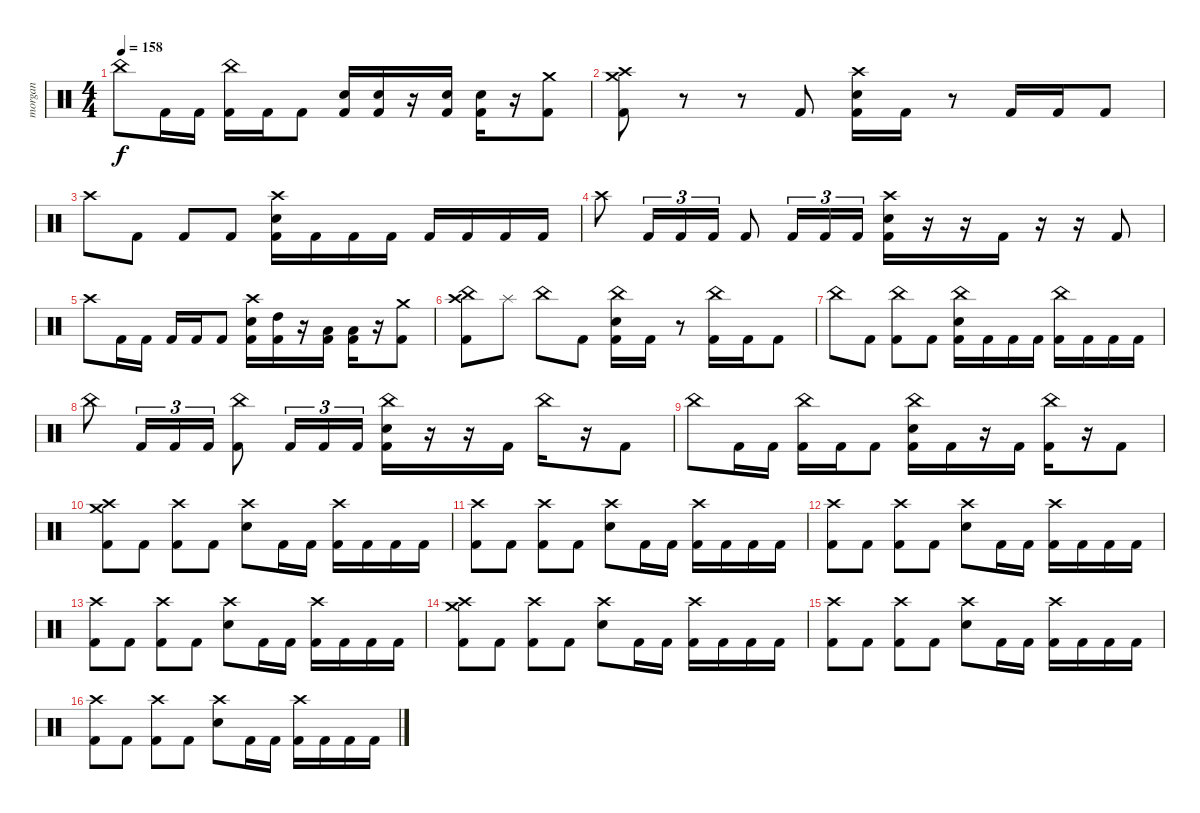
\track ("morgan" "morgan") {instrument percussion}
\staff {score}
\articulation defaults
\ts (4 4)
\tempo 158
\clef neutral
\ks c "China (hit)".8{dy f} "Kick (hit) 2".16 "Kick (hit) 2".16
("China (hit)" "Kick (hit) 2").16 "Kick (hit) 2".16 "Kick (hit) 2".8 ("Electric Snare (hit)" "Kick (hit) 2").16 ("Electric Snare (hit)" "Kick (hit) 2").16 r.16 ("Electric Snare (hit)" "Kick (hit) 2").16 ("Electric Snare (hit)" "Kick (hit) 2").16 r.16 ("Crash medium (hit)" "Kick (hit) 2").8 |
("Crash medium (hit)" "Crash high (hit)" "Kick (hit) 2").8 r.8 r.8 "Kick (hit) 2".8 ("Crash high (hit)" "Electric Snare (hit)" "Kick (hit) 2").16 "Kick (hit) 2".16 r.8 "Kick (hit) 2".16 "Kick (hit) 2".16 "Kick (hit) 2".8 |
"Crash high (hit)".8 "Kick (hit) 2".8 "Kick (hit) 2".8 "Kick (hit) 2".8 ("Crash high (hit)" "Electric Snare (hit)" "Kick (hit) 2").16 "Kick (hit) 2".16 "Kick (hit) 2".16 "Kick (hit) 2".16 "Kick (hit) 2".16 "Kick (hit) 2".16 "Kick (hit) 2".16 "Kick (hit) 2".16 |
"Crash high (hit)".8 "Kick (hit) 2".16{tu (3 2)} "Kick (hit) 2".16{tu (3 2)} "Kick (hit) 2".16{tu (3 2)} "Kick (hit) 2".8 "Kick (hit) 2".16{tu (3 2)} "Kick (hit) 2".16{tu (3 2)} "Kick (hit) 2".16{tu (3 2)} ("Crash high (hit)" "Electric Snare (hit)" "Kick (hit) 2").16 r.16 r.16 "Kick (hit) 2".16 r.16 r.16 "Kick (hit) 2".8 |
"Crash high (hit)".8 "Kick (hit) 2".16 "Kick (hit) 2".16 "Kick (hit) 2".16 "Kick (hit) 2".16 "Kick (hit) 2".8 ("Crash high (hit)" "Electric Snare (hit)" "Kick (hit) 2").16 ("High Tom (hit)" "Kick (hit) 2").16 r.16 ("Low Tom (hit)" "Kick (hit) 2").16 ("Low Tom (hit)" "Kick (hit) 2").16 r.16 ("Crash medium (hit)" "Kick (hit) 2").8 |
("Crash high (hit)" "China (hit)" "Kick (hit) 2").8 "Splash (hit)".8 "China (hit)".8 "Kick (hit) 2".8 ("China (hit)" "Electric Snare (hit)" "Kick (hit) 2").16 "Kick (hit) 2".16 r.8 ("China (hit)" "Kick (hit) 2").16 "Kick (hit) 2".16 "Kick (hit) 2".8 |
"China (hit)".8 "Kick (hit) 2".8 ("China (hit)" "Kick (hit) 2").8 "Kick (hit) 2".8 ("China (hit)" "Electric Snare (hit)" "Kick (hit) 2").16 "Kick (hit) 2".16 "Kick (hit) 2".16 "Kick (hit) 2".16 ("China (hit)" "Kick (hit) 2").16 "Kick (hit) 2".16 "Kick (hit) 2".16 "Kick (hit) 2".16 |
"China (hit)".8 "Kick (hit) 2".16{tu (3 2)} "Kick (hit) 2".16{tu (3 2)} "Kick (hit) 2".16{tu (3 2)} ("China (hit)" "Kick (hit) 2").8 "Kick (hit) 2".16{tu (3 2)} "Kick (hit) 2".16{tu (3 2)} "Kick (hit) 2".16{tu (3 2)} ("China (hit)" "Electric Snare (hit)" "Kick (hit) 2").16 r.16 r.16 "Kick (hit) 2".16 "China (hit)".16 r.16 "Kick (hit) 2".8 |
"China (hit)".8 "Kick (hit) 2".16 "Kick (hit) 2".16 ("China (hit)" "Kick (hit) 2").16 "Kick (hit) 2".16 "Kick (hit) 2".8 ("China (hit)" "Electric Snare (hit)" "Kick (hit) 2").16 "Kick (hit) 2".16 r.16 "Kick (hit) 2".16 ("China (hit)" "Kick (hit) 2").16 r.16 "Kick (hit) 2".8 |
("Crash medium (hit)" "Crash high (hit)" "Kick (hit) 2").8 "Kick (hit) 2".8 ("Crash high (hit)" "Kick (hit) 2").8 "Kick (hit) 2".8 ("Crash high (hit)" "Electric Snare (hit)").8 "Kick (hit) 2".16 "Kick (hit) 2".16 ("Crash high (hit)" "Kick (hit) 2").16 "Kick (hit) 2".16 "Kick (hit) 2".16 "Kick (hit) 2".16 |
("Crash high (hit)" "Kick (hit) 2").8 "Kick (hit) 2".8 ("Crash high (hit)" "Kick (hit) 2").8 "Kick (hit) 2".8 ("Crash high (hit)" "Electric Snare (hit)").8 "Kick (hit) 2".16 "Kick (hit) 2".16 ("Crash high (hit)" "Kick (hit) 2").16 "Kick (hit) 2".16 "Kick (hit) 2".16 "Kick (hit) 2".16 |
("Crash high (hit)" "Kick (hit) 2").8 "Kick (hit) 2".8 ("Crash high (hit)" "Kick (hit) 2").8 "Kick (hit) 2".8 ("Crash high (hit)" "Electric Snare (hit)").8 "Kick (hit) 2".16 "Kick (hit) 2".16 ("Crash high (hit)" "Kick (hit) 2").16 "Kick (hit) 2".16 "Kick (hit) 2".16 "Kick (hit) 2".16 |
("Crash high (hit)" "Kick (hit) 2").8 "Kick (hit) 2".8 ("Crash high (hit)" "Kick (hit) 2").8 "Kick (hit) 2".8 ("Crash high (hit)" "Electric Snare (hit)").8 "Kick (hit) 2".16 "Kick (hit) 2".16 ("Crash high (hit)" "Kick (hit) 2").16 "Kick (hit) 2".16 "Kick (hit) 2".16 "Kick (hit) 2".16 |
("Crash medium (hit)" "Crash high (hit)" "Kick (hit) 2").8 "Kick (hit) 2".8 ("Crash high (hit)" "Kick (hit) 2").8 "Kick (hit) 2".8 ("Crash high (hit)" "Electric Snare (hit)").8 "Kick (hit) 2".16 "Kick (hit) 2".16 ("Crash high (hit)" "Kick (hit) 2").16 "Kick (hit) 2".16 "Kick (hit) 2".16 "Kick (hit) 2".16 |
("Crash high (hit)" "Kick (hit) 2").8 "Kick (hit) 2".8 ("Crash high (hit)" "Kick (hit) 2").8 "Kick (hit) 2".8 ("Crash high (hit)" "Electric Snare (hit)").8 "Kick (hit) 2".16 "Kick (hit) 2".16 ("Crash high (hit)" "Kick (hit) 2").16 "Kick (hit) 2".16 "Kick (hit) 2".16 "Kick (hit) 2".16 |
("Crash high (hit)" "Kick (hit) 2").8 "Kick (hit) 2".8 ("Crash high (hit)" "Kick (hit) 2").8 "Kick (hit) 2".8 ("Crash high (hit)" "Electric Snare (hit)").8 "Kick (hit) 2".16 "Kick (hit) 2".16 ("Crash high (hit)" "Kick (hit) 2").16 "Kick (hit) 2".16 "Kick (hit) 2".16 "Kick (hit) 2".16
